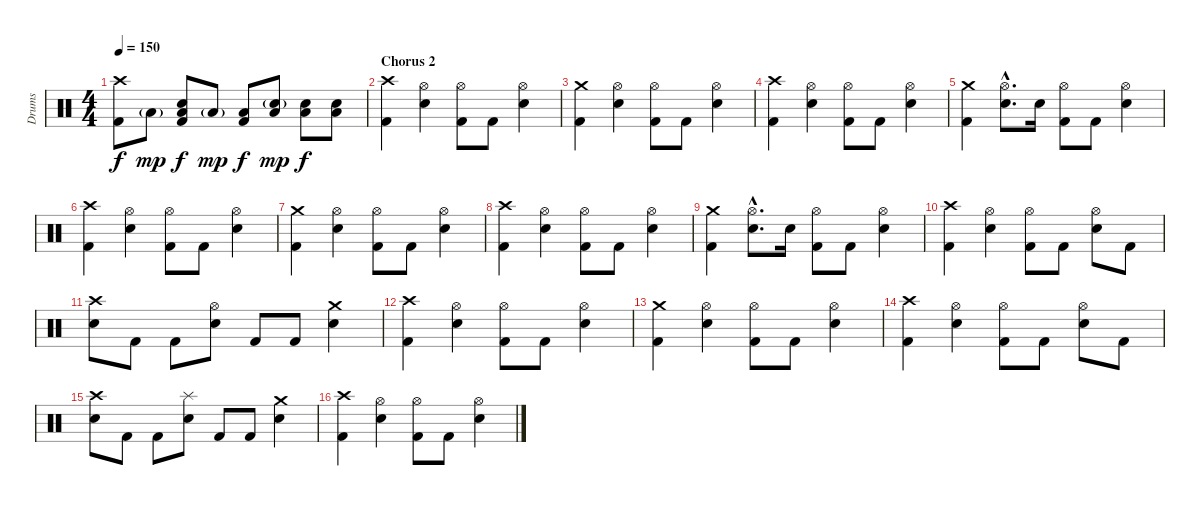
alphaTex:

\track ("Drums" "Drums") {instrument percussion}
\staff {score}
\articulation defaults
\ts (4 4)
\tempo 150
\clef neutral
\ks c
("Crash high (hit)" "Kick (hit) 2").8{dy f} "Low Floor Tom (hit)"{g}.8{dy mp} ("Low Floor Tom (hit)" "Kick (hit) 2" "Electric Snare (hit)").8{dy f} "Low Floor Tom (hit)"{g}.8{dy mp} ("Low Floor Tom (hit)" "Kick (hit) 2").8{dy f} ("Low Floor Tom (hit)" "Electric Snare (hit)"{g}).8{dy mp} ("Low Floor Tom (hit)" "Electric Snare (hit)").8{dy f} ("Low Floor Tom (hit)" "Electric Snare (hit)").8 |
\section ("" "Chorus 2")
("Crash high (hit)" "Kick (hit) 2").4 ("Hi-Hat (open)" "Electric Snare (hit)").4 ("Hi-Hat (open)" "Kick (hit) 2").8 "Kick (hit) 2".8 ("Hi-Hat (open)" "Electric Snare (hit)").4 |
("Crash medium (hit)" "Kick (hit) 2").4 ("Hi-Hat (open)" "Electric Snare (hit)").4 ("Hi-Hat (open)" "Kick (hit) 2").8 "Kick (hit) 2".8 ("Hi-Hat (open)" "Electric Snare (hit)").4 |
("Crash high (hit)" "Kick (hit) 2").4 ("Hi-Hat (open)" "Electric Snare (hit)").4 ("Hi-Hat (open)" "Kick (hit) 2").8 "Kick (hit) 2".8 ("Hi-Hat (open)" "Electric Snare (hit)").4 |
("Crash medium (hit)" "Kick (hit) 2").4 ("Hi-Hat (open)"{hac} "Electric Snare (hit)"{hac}).8{d} "Electric Snare (hit)".16 ("Hi-Hat (open)" "Kick (hit) 2").8 "Kick (hit) 2".8 ("Hi-Hat (open)" "Electric Snare (hit)").4 |
("Crash high (hit)" "Kick (hit) 2").4 ("Hi-Hat (open)" "Electric Snare (hit)").4 ("Hi-Hat (open)" "Kick (hit) 2").8 "Kick (hit) 2".8 ("Hi-Hat (open)" "Electric Snare (hit)").4 |
("Crash medium (hit)" "Kick (hit) 2").4 ("Hi-Hat (open)" "Electric Snare (hit)").4 ("Hi-Hat (open)" "Kick (hit) 2").8 "Kick (hit) 2".8 ("Hi-Hat (open)" "Electric Snare (hit)").4 |
("Crash high (hit)" "Kick (hit) 2").4 ("Hi-Hat (open)" "Electric Snare (hit)").4 ("Hi-Hat (open)" "Kick (hit) 2").8 "Kick (hit) 2".8 ("Hi-Hat (open)" "Electric Snare (hit)").4 |
("Crash medium (hit)" "Kick (hit) 2").4 ("Hi-Hat (open)"{hac} "Electric Snare (hit)"{hac}).8{d} "Electric Snare (hit)".16 ("Hi-Hat (open)" "Kick (hit) 2").8 "Kick (hit) 2".8 ("Hi-Hat (open)" "Electric Snare (hit)").4 |
("Crash high (hit)" "Kick (hit) 2").4 ("Hi-Hat (open)" "Electric Snare (hit)").4 ("Hi-Hat (open)" "Kick (hit) 2").8 "Kick (hit) 2".8 ("Hi-Hat (open)" "Electric Snare (hit)").8 "Kick (hit) 2".8 |
("Crash high (hit)" "Electric Snare (hit)").8 "Kick (hit) 2".8 "Kick (hit) 2".8 ("Hi-Hat (open)" "Electric Snare (hit)").8 "Kick (hit) 2".8 "Kick (hit) 2".8 ("Crash medium (hit)" "Electric Snare (hit)").4 |
("Crash high (hit)" "Kick (hit) 2").4 ("Hi-Hat (open)" "Electric Snare (hit)").4 ("Hi-Hat (open)" "Kick (hit) 2").8 "Kick (hit) 2".8 ("Hi-Hat (open)" "Electric Snare (hit)").4 |
("Crash medium (hit)" "Kick (hit) 2").4 ("Hi-Hat (open)" "Electric Snare (hit)").4 ("Hi-Hat (open)" "Kick (hit) 2").8 "Kick (hit) 2".8 ("Hi-Hat (open)" "Electric Snare (hit)").4 |
("Crash high (hit)" "Kick (hit) 2").4 ("Hi-Hat (open)" "Electric Snare (hit)").4 ("Hi-Hat (open)" "Kick (hit) 2").8 "Kick (hit) 2".8 ("Hi-Hat (open)" "Electric Snare (hit)").8 "Kick (hit) 2".8 |
("Crash high (hit)" "Electric Snare (hit)").8 "Kick (hit) 2".8 "Kick (hit) 2".8 ("Splash (hit)" "Electric Snare (hit)").8 "Kick (hit) 2".8 "Kick (hit) 2".8 ("Crash medium (hit)" "Electric Snare (hit)").4 |
("Crash high (hit)" "Kick (hit) 2").4 ("Hi-Hat (open)" "Electric Snare (hit)").4 ("Hi-Hat (open)" "Kick (hit) 2").8 "Kick (hit) 2".8 ("Hi-Hat (open)" "Electric Snare (hit)").4
